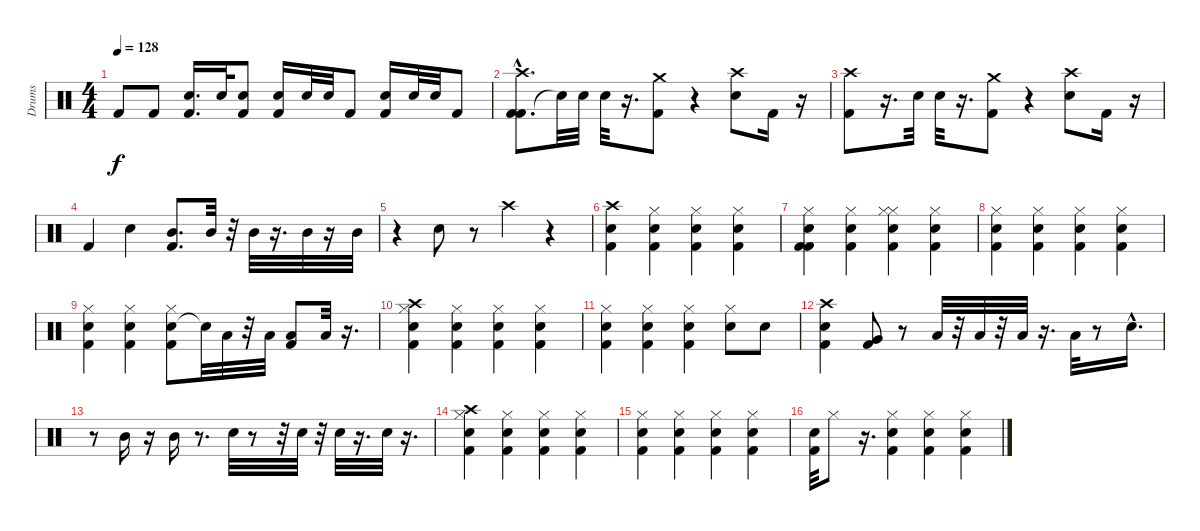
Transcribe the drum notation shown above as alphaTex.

\track ("Drums" "Drums") {instrument percussion}
\staff {score}
\articulation defaults
\ts (4 4)
\tempo 128
\clef neutral
\ks c "Kick (hit) 2".8{dy f} "Kick (hit) 2".8
("Kick (hit) 2" "Snare (hit) 2").16{d} "Snare (hit) 2".32 ("Snare (hit) 2" "Kick (hit) 2").8 ("Snare (hit) 2" "Kick (hit) 2").16 "Snare (hit) 2".32 "Snare (hit) 2".32 "Kick (hit) 2".8 ("Snare (hit) 2" "Kick (hit) 2").16 "Snare (hit) 2".32 "Snare (hit) 2".32 "Kick (hit) 2".8 |
("Kick (hit) 2" "Crash high (hit)"{hac} "Kick (hit) 2").8{d} "Snare (hit)"{t}.32 "Snare (hit) 2".32 "Snare (hit) 2".32 r.16{d} ("Kick (hit) 2" "Crash medium (hit)").8 r.4 ("Snare (hit) 2" "Crash high (hit)").8 "Kick (hit) 2".16 r.16 |
("Kick (hit) 2" "Crash high (hit)").8 r.16{d} "Snare (hit) 2".32 "Snare (hit) 2".32 r.16{d} ("Crash medium (hit)" "Kick (hit) 2").8 r.4 ("Crash high (hit)" "Snare (hit) 2").8 "Kick (hit) 2".16 r.16 |
"Kick (hit) 2".4 "Snare (hit) 2".4 ("Mid Tom (hit)" "Kick (hit) 2").8{d} "Mid Tom (hit)".32 r.32 "Mid Tom (hit)".32 r.16{d} "Mid Tom (hit)".32 r.16 "Mid Tom (hit)".32 |
r.4 "Snare (hit) 2".8 r.8 "Crash high (hit)".4 r.4 |
("Snare (hit) 2" "Kick (hit) 2" "Crash high (hit)").4 ("Snare (hit) 2" "Kick (hit) 2" "Hi-Hat (closed)").4 ("Kick (hit) 2" "Hi-Hat (closed)" "Snare (hit) 2").4 ("Kick (hit) 2" "Hi-Hat (closed)" "Snare (hit) 2").4 |
("Snare (hit) 2" "Hi-Hat (closed)" "Kick (hit) 2" "Kick (hit) 2").4 ("Kick (hit) 2" "Snare (hit) 2" "Hi-Hat (closed)").4 ("Hi-Hat (closed)" "Kick (hit) 2" "Snare (hit) 2" "Hi-Hat (closed)").4 ("Hi-Hat (closed)" "Kick (hit) 2" "Snare (hit) 2").4 |
("Snare (hit) 2" "Kick (hit) 2" "Hi-Hat (closed)").4 ("Hi-Hat (closed)" "Kick (hit) 2" "Snare (hit) 2").4 ("Kick (hit) 2" "Snare (hit) 2" "Hi-Hat (closed)").4 ("Kick (hit) 2" "Snare (hit) 2" "Hi-Hat (closed)").4 |
("Kick (hit) 2" "Snare (hit) 2" "Hi-Hat (closed)").4 ("Hi-Hat (closed)" "Kick (hit) 2" "Snare (hit) 2").4 ("Snare (hit) 2" "Kick (hit) 2" "Hi-Hat (closed)").8 "Snare (hit)"{t}.32 "Low Tom (hit)".32 r.32 "Low Tom (hit)".32 ("Kick (hit) 2" "Low Tom (hit)").8 "Low Tom (hit)".32 r.16{d} |
("Hi-Hat (closed)" "Crash high (hit)" "Snare (hit) 2" "Kick (hit) 2").4 ("Snare (hit) 2" "Kick (hit) 2" "Hi-Hat (closed)").4 ("Kick (hit) 2" "Hi-Hat (closed)" "Snare (hit) 2").4 ("Snare (hit) 2" "Kick (hit) 2" "Hi-Hat (closed)").4 |
("Kick (hit) 2" "Hi-Hat (closed)" "Snare (hit) 2").4 ("Kick (hit) 2" "Snare (hit) 2" "Hi-Hat (closed)").4 ("Snare (hit) 2" "Kick (hit) 2" "Hi-Hat (closed)").4 ("Snare (hit) 2" "Hi-Hat (closed)").8 "Snare (hit) 2".8 |
("Snare (hit) 2" "Crash high (hit)" "Kick (hit) 2").4 ("Kick (hit) 2" "Very Low Tom (hit)").8 r.8 "Low Tom (hit)".32 r.32 "Low Tom (hit)".32 r.32 "Low Tom (hit)".32 r.16{d} "Low Tom (hit)".32 r.8 "Snare (hit) 2"{hac}.16{d} |
r.8 "Mid Tom (hit)".16 r.16 "Mid Tom (hit)".16 r.8{d} "Snare (hit) 2".32 r.8 r.32 "Snare (hit) 2".32 r.32 "Snare (hit) 2".32 r.16{d} "Snare (hit) 2".32 r.16{d} |
("Hi-Hat (closed)" "Snare (hit) 2" "Crash high (hit)" "Kick (hit) 2").4 ("Snare (hit) 2" "Hi-Hat (closed)" "Kick (hit) 2").4 ("Kick (hit) 2" "Snare (hit) 2" "Hi-Hat (closed)").4 ("Snare (hit) 2" "Hi-Hat (closed)" "Kick (hit) 2").4 |
("Snare (hit) 2" "Hi-Hat (closed)" "Kick (hit) 2").4 ("Kick (hit) 2" "Hi-Hat (closed)" "Snare (hit) 2").4 ("Hi-Hat (closed)" "Kick (hit) 2" "Snare (hit) 2").4 ("Kick (hit) 2" "Hi-Hat (closed)" "Snare (hit) 2").4 |
("Snare (hit) 2" "Kick (hit) 2").32 "Hi-Hat (closed)".8 r.16{d} ("Kick (hit) 2" "Snare (hit) 2" "Hi-Hat (closed)").4 ("Kick (hit) 2" "Hi-Hat (closed)" "Snare (hit) 2").4 ("Hi-Hat (closed)" "Kick (hit) 2" "Snare (hit) 2").4
